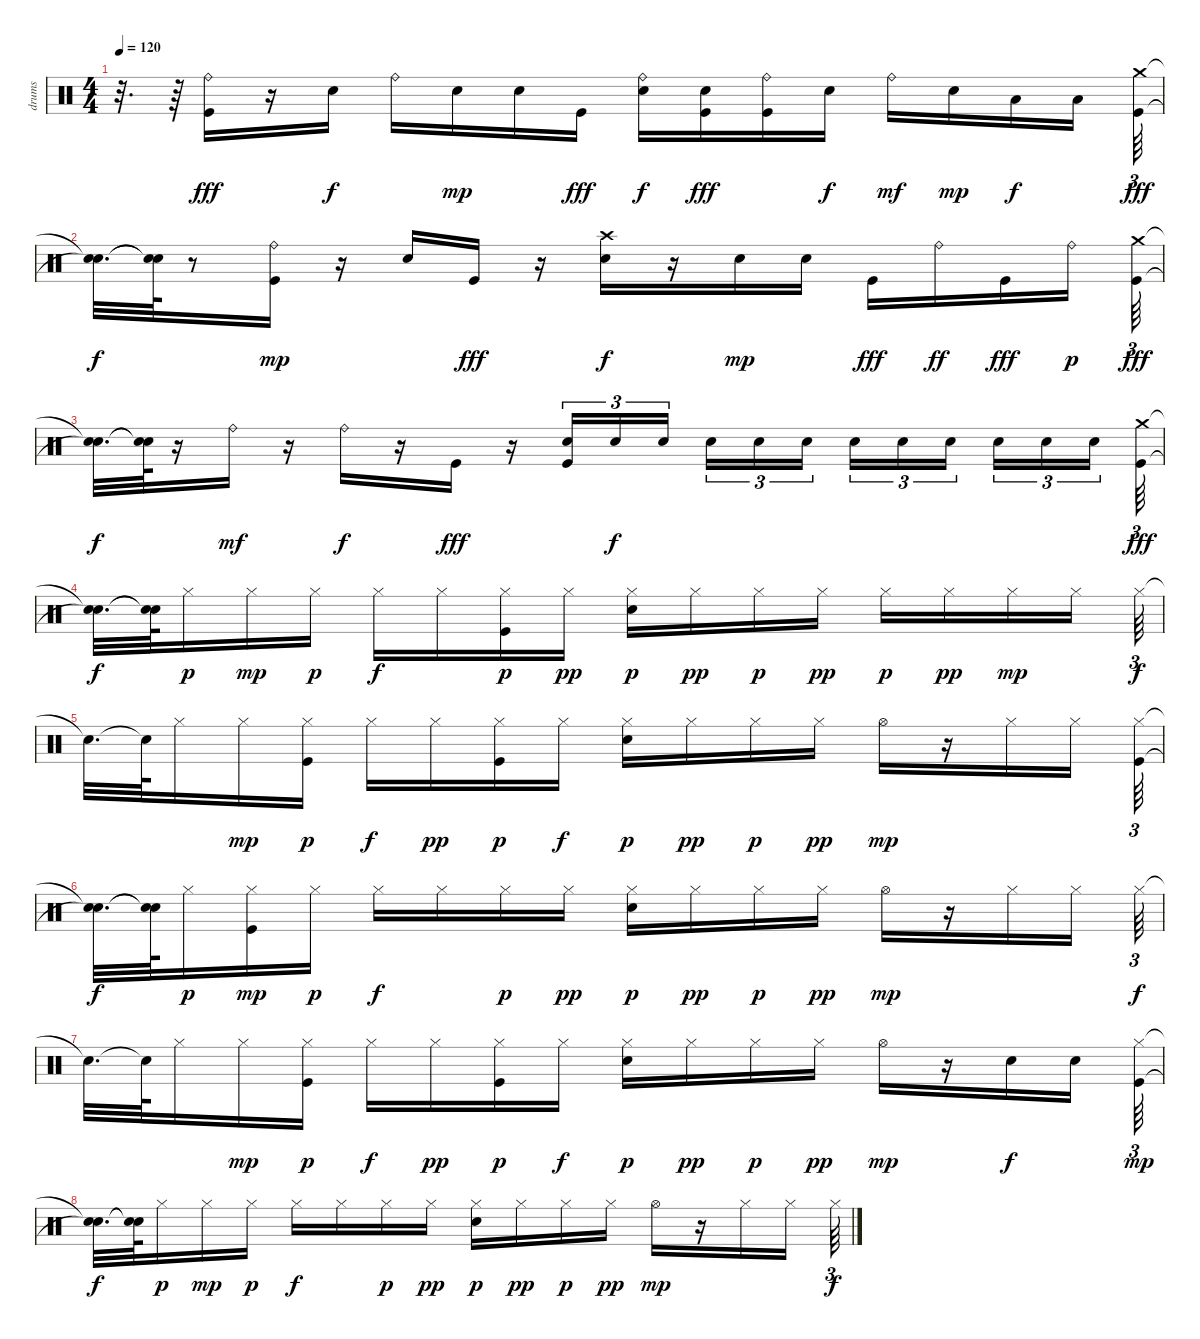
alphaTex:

\track ("drums" "drums") {instrument percussion}
\staff {score}
\articulation defaults
\ts (4 4)
\tempo 120
\clef neutral
\ks c
r.32{d dy f} r.64 ("Kick (hit)" "Ride (bell)").16{dy fff} r.16 "Snare (hit) 2".16{dy f} "Ride (bell)".16 "Snare (hit) 2".16{dy mp} "Snare (hit) 2".16 "Kick (hit)".16{dy fff} ("Snare (hit) 2" "Ride (bell)").16{dy f} ("Snare (hit) 2" "Kick (hit)").16{dy fff} ("Kick (hit)" "Ride (bell)").16 "Snare (hit) 2".16{dy f} "Ride (bell)".16{dy mf} "Snare (hit) 2".16{dy mp} "Low Tom (hit)".16{dy f} "Low Tom (hit)".16 ("Kick (hit)" "Crash medium (hit)").64{tu (3 2) dy fff} |
("Snare (hit)"{t} "Snare (hit)"{t}).32{d dy f} ("Snare (hit)"{t} "Snare (hit)"{t}).64 r.8 ("Kick (hit)" "Ride (bell)").16{dy mp} r.16 "Snare (hit) 2".16 "Kick (hit)".16{dy fff} r.16 ("Snare (hit) 2" "Crash high (hit)").16{dy f} r.16 "Snare (hit) 2".16{dy mp} "Snare (hit) 2".16 "Kick (hit)".16{dy fff} "Ride (bell)".16{dy ff} "Kick (hit)".16{dy fff} "Ride (bell)".16{dy p} ("Kick (hit)" "Crash medium (hit)").64{tu (3 2) dy fff} |
("Snare (hit)"{t} "Snare (hit)"{t}).32{d dy f} ("Snare (hit)"{t} "Snare (hit)"{t}).64 r.16 "Ride (bell)".16{dy mf} r.16 "Ride (bell)".16{dy f} r.16 "Kick (hit)".16{dy fff} r.16 ("Snare (hit) 2" "Kick (hit)").16{tu (3 2)} "Snare (hit) 2".16{tu (3 2) dy f} "Snare (hit) 2".16{tu (3 2) beam splitsecondary} "Snare (hit) 2".16{tu (3 2)} "Snare (hit) 2".16{tu (3 2)} "Snare (hit) 2".16{tu (3 2)} "Snare (hit) 2".16{tu (3 2)} "Snare (hit) 2".16{tu (3 2)} "Snare (hit) 2".16{tu (3 2) beam splitsecondary} "Snare (hit) 2".16{tu (3 2)} "Snare (hit) 2".16{tu (3 2)} "Snare (hit) 2".16{tu (3 2)} ("Kick (hit)" "Crash medium (hit)").64{tu (3 2) dy fff} |
("Snare (hit)"{t} "Snare (hit)"{t}).32{d dy f} ("Snare (hit)"{t} "Snare (hit)"{t}).64 "Hi-Hat (closed)".16{dy p} "Hi-Hat (closed)".16{dy mp} "Hi-Hat (closed)".16{dy p} "Hi-Hat (closed)".16{dy f} "Hi-Hat (closed)".16 ("Kick (hit)" "Hi-Hat (closed)").16{dy p} "Hi-Hat (closed)".16{dy pp} ("Snare (hit) 2" "Hi-Hat (closed)").16{dy p} "Hi-Hat (closed)".16{dy pp} "Hi-Hat (closed)".16{dy p} "Hi-Hat (closed)".16{dy pp} "Hi-Hat (closed)".16{dy p} "Hi-Hat (closed)".16{dy pp} "Hi-Hat (closed)".16{dy mp} "Hi-Hat (closed)".16 "Hi-Hat (closed)".64{tu (3 2) dy f} |
"Snare (hit)"{t}.32{d} "Snare (hit)"{t}.64 "Hi-Hat (closed)".16 "Hi-Hat (closed)".16{dy mp} ("Kick (hit)" "Hi-Hat (closed)").16{dy p} "Hi-Hat (closed)".16{dy f} "Hi-Hat (closed)".16{dy pp} ("Kick (hit)" "Hi-Hat (closed)").16{dy p} "Hi-Hat (closed)".16{dy f} ("Snare (hit) 2" "Hi-Hat (closed)").16{dy p} "Hi-Hat (closed)".16{dy pp} "Hi-Hat (closed)".16{dy p} "Hi-Hat (closed)".16{dy pp} "Hi-Hat (open)".16{dy mp} r.16 "Hi-Hat (closed)".16 "Hi-Hat (closed)".16 ("Kick (hit)" "Hi-Hat (closed)").64{tu (3 2)} |
("Snare (hit)"{t} "Snare (hit)"{t}).32{d dy f} ("Snare (hit)"{t} "Snare (hit)"{t}).64 "Hi-Hat (closed)".16{dy p} ("Kick (hit)" "Hi-Hat (closed)").16{dy mp} "Hi-Hat (closed)".16{dy p} "Hi-Hat (closed)".16{dy f} "Hi-Hat (closed)".16 "Hi-Hat (closed)".16{dy p} "Hi-Hat (closed)".16{dy pp} ("Snare (hit) 2" "Hi-Hat (closed)").16{dy p} "Hi-Hat (closed)".16{dy pp} "Hi-Hat (closed)".16{dy p} "Hi-Hat (closed)".16{dy pp} "Hi-Hat (open)".16{dy mp} r.16 "Hi-Hat (closed)".16 "Hi-Hat (closed)".16 "Hi-Hat (closed)".64{tu (3 2) dy f} |
"Snare (hit)"{t}.32{d} "Snare (hit)"{t}.64 "Hi-Hat (closed)".16 "Hi-Hat (closed)".16{dy mp} ("Kick (hit)" "Hi-Hat (closed)").16{dy p} "Hi-Hat (closed)".16{dy f} "Hi-Hat (closed)".16{dy pp} ("Kick (hit)" "Hi-Hat (closed)").16{dy p} "Hi-Hat (closed)".16{dy f} ("Snare (hit) 2" "Hi-Hat (closed)").16{dy p} "Hi-Hat (closed)".16{dy pp} "Hi-Hat (closed)".16{dy p} "Hi-Hat (closed)".16{dy pp} "Hi-Hat (open)".16{dy mp} r.16 "Snare (hit) 2".16{dy f} "Snare (hit) 2".16 ("Kick (hit)" "Hi-Hat (closed)").64{tu (3 2) dy mp} |
("Snare (hit)"{t} "Snare (hit)"{t}).32{d dy f} ("Snare (hit)"{t} "Snare (hit)"{t}).64 "Hi-Hat (closed)".16{dy p} "Hi-Hat (closed)".16{dy mp} "Hi-Hat (closed)".16{dy p} "Hi-Hat (closed)".16{dy f} "Hi-Hat (closed)".16 "Hi-Hat (closed)".16{dy p} "Hi-Hat (closed)".16{dy pp} ("Snare (hit) 2" "Hi-Hat (closed)").16{dy p} "Hi-Hat (closed)".16{dy pp} "Hi-Hat (closed)".16{dy p} "Hi-Hat (closed)".16{dy pp} "Hi-Hat (open)".16{dy mp} r.16 "Hi-Hat (closed)".16 "Hi-Hat (closed)".16 "Hi-Hat (closed)".64{tu (3 2) dy f}
